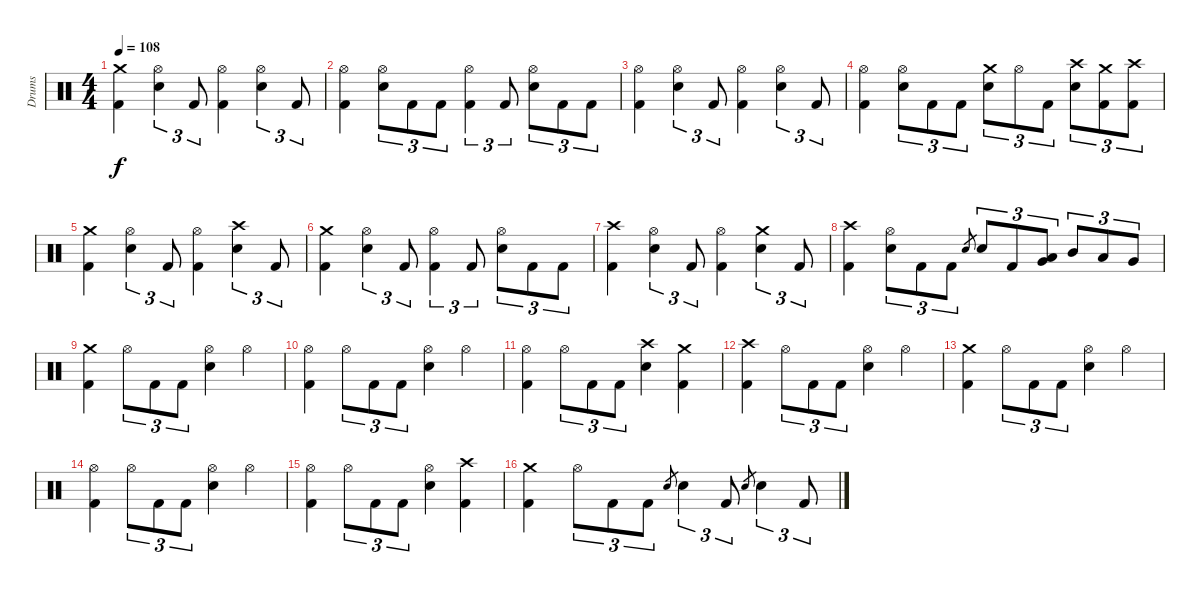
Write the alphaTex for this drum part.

\track ("Drums" "Drums") {instrument percussion}
\staff {score}
\articulation defaults
\ts (4 4)
\tempo 108
\clef neutral
\ks c
("Crash medium (hit)" "Kick (hit) 2").4{dy f} ("Hi-Hat (open)" "Electric Snare (hit)").4{tu (3 2)} "Kick (hit) 2".8{tu (3 2)} ("Hi-Hat (open)" "Kick (hit) 2").4 ("Hi-Hat (open)" "Electric Snare (hit)").4{tu (3 2)} "Kick (hit) 2".8{tu (3 2)} |
("Hi-Hat (open)" "Kick (hit) 2").4 ("Hi-Hat (open)" "Electric Snare (hit)").8{tu (3 2)} "Kick (hit) 2".8{tu (3 2)} "Kick (hit) 2".8{tu (3 2)} ("Hi-Hat (open)" "Kick (hit) 2").4{tu (3 2)} "Kick (hit) 2".8{tu (3 2)} ("Hi-Hat (open)" "Electric Snare (hit)").8{tu (3 2)} "Kick (hit) 2".8{tu (3 2)} "Kick (hit) 2".8{tu (3 2)} |
("Hi-Hat (open)" "Kick (hit) 2").4 ("Hi-Hat (open)" "Electric Snare (hit)").4{tu (3 2)} "Kick (hit) 2".8{tu (3 2)} ("Hi-Hat (open)" "Kick (hit) 2").4 ("Hi-Hat (open)" "Electric Snare (hit)").4{tu (3 2)} "Kick (hit) 2".8{tu (3 2)} |
("Hi-Hat (open)" "Kick (hit) 2").4 ("Hi-Hat (open)" "Electric Snare (hit)").8{tu (3 2)} "Kick (hit) 2".8{tu (3 2)} "Kick (hit) 2".8{tu (3 2)} ("Crash medium (hit)" "Electric Snare (hit)").8{tu (3 2)} "Hi-Hat (open)".8{tu (3 2)} "Kick (hit) 2".8{tu (3 2)} ("Crash high (hit)" "Electric Snare (hit)").8{tu (3 2)} ("Crash medium (hit)" "Kick (hit) 2").8{tu (3 2)} ("Crash high (hit)" "Kick (hit) 2").8{tu (3 2)} |
("Crash medium (hit)" "Kick (hit) 2").4 ("Hi-Hat (open)" "Electric Snare (hit)").4{tu (3 2)} "Kick (hit) 2".8{tu (3 2)} ("Hi-Hat (open)" "Kick (hit) 2").4 ("Crash high (hit)" "Electric Snare (hit)").4{tu (3 2)} "Kick (hit) 2".8{tu (3 2)} |
("Crash medium (hit)" "Kick (hit) 2").4 ("Hi-Hat (open)" "Electric Snare (hit)").4{tu (3 2)} "Kick (hit) 2".8{tu (3 2)} ("Hi-Hat (open)" "Kick (hit) 2").4{tu (3 2)} "Kick (hit) 2".8{tu (3 2)} ("Hi-Hat (open)" "Electric Snare (hit)").8{tu (3 2)} "Kick (hit) 2".8{tu (3 2)} "Kick (hit) 2".8{tu (3 2)} |
("Crash high (hit)" "Kick (hit) 2").4 ("Hi-Hat (open)" "Electric Snare (hit)").4{tu (3 2)} "Kick (hit) 2".8{tu (3 2)} ("Hi-Hat (open)" "Kick (hit) 2").4 ("Crash medium (hit)" "Electric Snare (hit)").4{tu (3 2)} "Kick (hit) 2".8{tu (3 2)} |
("Crash high (hit)" "Kick (hit) 2").4 ("Hi-Hat (open)" "Electric Snare (hit)").8{tu (3 2)} "Kick (hit) 2".8{tu (3 2)} "Kick (hit) 2".8{tu (3 2)} "Electric Snare (hit)".8{gr} "Electric Snare (hit)".8{tu (3 2)} "Kick (hit) 2".8{tu (3 2)} ("Very Low Tom (hit)" "Low Tom (hit)").8{tu (3 2) bd 120} "Mid Tom (hit)".8{tu (3 2)} "Low Tom (hit)".8{tu (3 2)} "Very Low Tom (hit)".8{tu (3 2)} |
("Crash medium (hit)" "Kick (hit) 2").4 "Hi-Hat (open)".8{tu (3 2)} "Kick (hit) 2".8{tu (3 2)} "Kick (hit) 2".8{tu (3 2)} ("Hi-Hat (open)" "Electric Snare (hit)").4 "Hi-Hat (open)".4 |
("Hi-Hat (open)" "Kick (hit) 2").4 "Hi-Hat (open)".8{tu (3 2)} "Kick (hit) 2".8{tu (3 2)} "Kick (hit) 2".8{tu (3 2)} ("Hi-Hat (open)" "Electric Snare (hit)").4 "Hi-Hat (open)".4 |
("Hi-Hat (open)" "Kick (hit) 2").4 "Hi-Hat (open)".8{tu (3 2)} "Kick (hit) 2".8{tu (3 2)} "Kick (hit) 2".8{tu (3 2)} ("Crash high (hit)" "Electric Snare (hit)").4 ("Crash medium (hit)" "Kick (hit) 2").4 |
("Crash high (hit)" "Kick (hit) 2").4 "Hi-Hat (open)".8{tu (3 2)} "Kick (hit) 2".8{tu (3 2)} "Kick (hit) 2".8{tu (3 2)} ("Hi-Hat (open)" "Electric Snare (hit)").4 "Hi-Hat (open)".4 |
("Crash medium (hit)" "Kick (hit) 2").4 "Hi-Hat (open)".8{tu (3 2)} "Kick (hit) 2".8{tu (3 2)} "Kick (hit) 2".8{tu (3 2)} ("Hi-Hat (open)" "Electric Snare (hit)").4 "Hi-Hat (open)".4 |
("Hi-Hat (open)" "Kick (hit) 2").4 "Hi-Hat (open)".8{tu (3 2)} "Kick (hit) 2".8{tu (3 2)} "Kick (hit) 2".8{tu (3 2)} ("Hi-Hat (open)" "Electric Snare (hit)").4 "Hi-Hat (open)".4 |
("Hi-Hat (open)" "Kick (hit) 2").4 "Hi-Hat (open)".8{tu (3 2)} "Kick (hit) 2".8{tu (3 2)} "Kick (hit) 2".8{tu (3 2)} ("Hi-Hat (open)" "Electric Snare (hit)").4 ("Crash high (hit)" "Kick (hit) 2").4 |
("Crash medium (hit)" "Kick (hit) 2").4 "Hi-Hat (open)".8{tu (3 2)} "Kick (hit) 2".8{tu (3 2)} "Kick (hit) 2".8{tu (3 2)} "Electric Snare (hit)".8{gr} "Electric Snare (hit)".4{tu (3 2)} "Kick (hit) 2".8{tu (3 2)} "Electric Snare (hit)".8{gr} "Electric Snare (hit)".4{tu (3 2)} "Kick (hit) 2".8{tu (3 2)}
